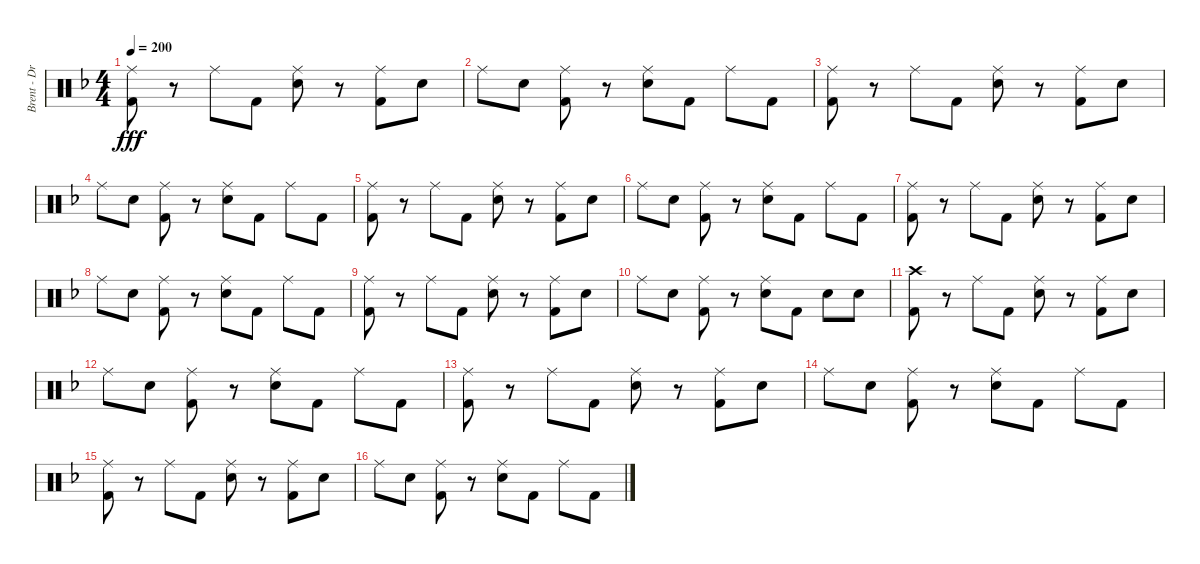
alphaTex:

\track ("Brent - Drums" "Brent - Dr") {instrument percussion}
\staff {score}
\articulation defaults
\ts (4 4)
\tempo 200
\clef neutral
\ks dminor
("Ride (middle)" "Kick (hit) 2").8{dy fff} r.8 "Ride (middle)".8 "Kick (hit) 2".8 ("Ride (middle)" "Snare (hit) 2").8 r.8 ("Ride (middle)" "Kick (hit) 2").8 "Snare (hit) 2".8 |
"Ride (middle)".8 "Snare (hit) 2".8 ("Ride (middle)" "Kick (hit) 2").8 r.8 ("Ride (middle)" "Snare (hit) 2").8 "Kick (hit) 2".8 "Ride (middle)".8 "Kick (hit) 2".8 |
("Ride (middle)" "Kick (hit) 2").8 r.8 "Ride (middle)".8 "Kick (hit) 2".8 ("Ride (middle)" "Snare (hit) 2").8 r.8 ("Ride (middle)" "Kick (hit) 2").8 "Snare (hit) 2".8 |
"Ride (middle)".8 "Snare (hit) 2".8 ("Ride (middle)" "Kick (hit) 2").8 r.8 ("Ride (middle)" "Snare (hit) 2").8 "Kick (hit) 2".8 "Ride (middle)".8 "Kick (hit) 2".8 |
("Ride (middle)" "Kick (hit) 2").8 r.8 "Ride (middle)".8 "Kick (hit) 2".8 ("Ride (middle)" "Snare (hit) 2").8 r.8 ("Ride (middle)" "Kick (hit) 2").8 "Snare (hit) 2".8 |
"Ride (middle)".8 "Snare (hit) 2".8 ("Ride (middle)" "Kick (hit) 2").8 r.8 ("Ride (middle)" "Snare (hit) 2").8 "Kick (hit) 2".8 "Ride (middle)".8 "Kick (hit) 2".8 |
("Ride (middle)" "Kick (hit) 2").8 r.8 "Ride (middle)".8 "Kick (hit) 2".8 ("Ride (middle)" "Snare (hit) 2").8 r.8 ("Ride (middle)" "Kick (hit) 2").8 "Snare (hit) 2".8 |
"Ride (middle)".8 "Snare (hit) 2".8 ("Ride (middle)" "Kick (hit) 2").8 r.8 ("Ride (middle)" "Snare (hit) 2").8 "Kick (hit) 2".8 "Ride (middle)".8 "Kick (hit) 2".8 |
("Ride (middle)" "Kick (hit) 2").8 r.8 "Ride (middle)".8 "Kick (hit) 2".8 ("Ride (middle)" "Snare (hit) 2").8 r.8 ("Ride (middle)" "Kick (hit) 2").8 "Snare (hit) 2".8 |
"Ride (middle)".8 "Snare (hit) 2".8 ("Ride (middle)" "Kick (hit) 2").8 r.8 ("Ride (middle)" "Snare (hit) 2").8 "Kick (hit) 2".8 "Snare (hit) 2".8 "Snare (hit) 2".8 |
("Crash high (hit)" "Kick (hit) 2").8 r.8 "Ride (middle)".8 "Kick (hit) 2".8 ("Ride (middle)" "Snare (hit) 2").8 r.8 ("Ride (middle)" "Kick (hit) 2").8 "Snare (hit) 2".8 |
"Ride (middle)".8 "Snare (hit) 2".8 ("Ride (middle)" "Kick (hit) 2").8 r.8 ("Ride (middle)" "Snare (hit) 2").8 "Kick (hit) 2".8 "Ride (middle)".8 "Kick (hit) 2".8 |
("Ride (middle)" "Kick (hit) 2").8 r.8 "Ride (middle)".8 "Kick (hit) 2".8 ("Ride (middle)" "Snare (hit) 2").8 r.8 ("Ride (middle)" "Kick (hit) 2").8 "Snare (hit) 2".8 |
"Ride (middle)".8 "Snare (hit) 2".8 ("Ride (middle)" "Kick (hit) 2").8 r.8 ("Ride (middle)" "Snare (hit) 2").8 "Kick (hit) 2".8 "Ride (middle)".8 "Kick (hit) 2".8 |
("Ride (middle)" "Kick (hit) 2").8 r.8 "Ride (middle)".8 "Kick (hit) 2".8 ("Ride (middle)" "Snare (hit) 2").8 r.8 ("Ride (middle)" "Kick (hit) 2").8 "Snare (hit) 2".8 |
"Ride (middle)".8 "Snare (hit) 2".8 ("Ride (middle)" "Kick (hit) 2").8 r.8 ("Ride (middle)" "Snare (hit) 2").8 "Kick (hit) 2".8 "Ride (middle)".8 "Kick (hit) 2".8
